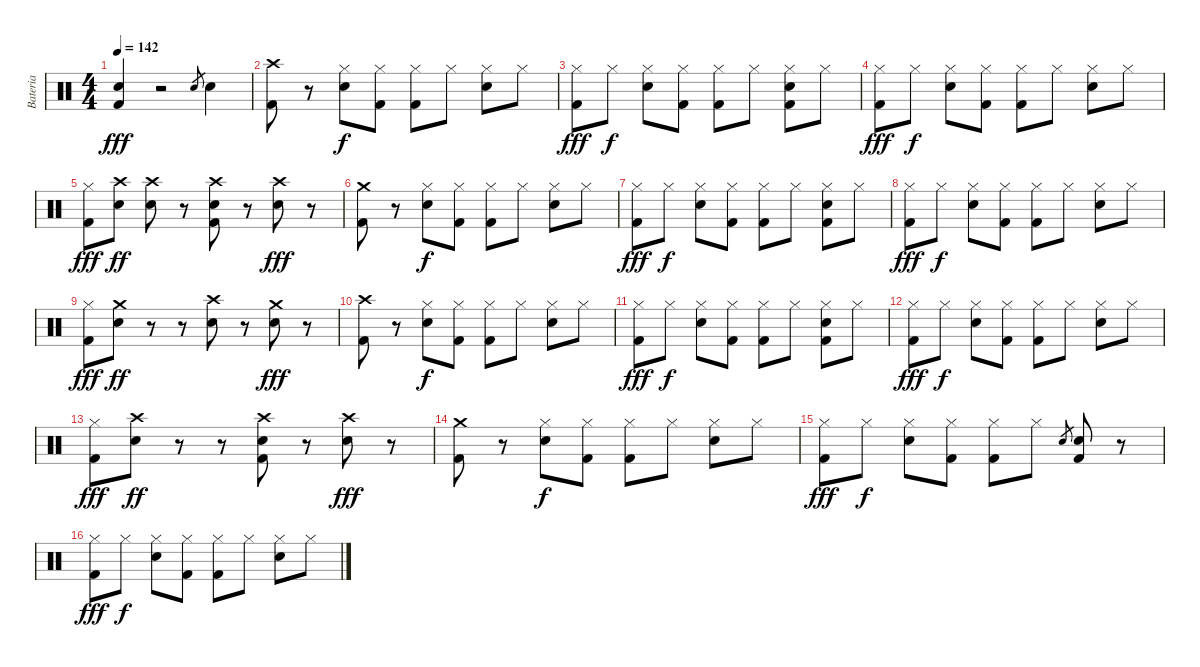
\track ("Bateria" "Bateria") {instrument percussion}
\staff {score}
\articulation defaults
\ts (4 4)
\tempo 142
\clef neutral
\ks c
("Electric Snare (hit)" "Kick (hit) 2").4{dy fff} r.2 "Electric Snare (hit)".8{gr} "Electric Snare (hit)".4 |
("Crash high (hit)" "Kick (hit) 2").8 r.8 ("Hi-Hat (closed)" "Electric Snare (hit)").8{dy f} ("Hi-Hat (closed)" "Kick (hit) 2").8 ("Hi-Hat (closed)" "Kick (hit) 2").8 "Hi-Hat (closed)".8 ("Hi-Hat (closed)" "Electric Snare (hit)").8 "Hi-Hat (closed)".8 |
("Hi-Hat (closed)" "Kick (hit) 2").8{dy fff} "Hi-Hat (closed)".8{dy f} ("Hi-Hat (closed)" "Electric Snare (hit)").8 ("Hi-Hat (closed)" "Kick (hit) 2").8 ("Hi-Hat (closed)" "Kick (hit) 2").8 "Hi-Hat (closed)".8 ("Hi-Hat (closed)" "Electric Snare (hit)" "Kick (hit) 2").8 "Hi-Hat (closed)".8 |
("Hi-Hat (closed)" "Kick (hit) 2").8{dy fff} "Hi-Hat (closed)".8{dy f} ("Hi-Hat (closed)" "Electric Snare (hit)").8 ("Hi-Hat (closed)" "Kick (hit) 2").8 ("Hi-Hat (closed)" "Kick (hit) 2").8 "Hi-Hat (closed)".8 ("Hi-Hat (closed)" "Electric Snare (hit)").8 "Hi-Hat (closed)".8 |
("Hi-Hat (closed)" "Kick (hit) 2").8{dy fff} ("Crash high (hit)" "Electric Snare (hit)").8{dy ff} ("Crash high (hit)" "Electric Snare (hit)").8 r.8 ("Crash high (hit)" "Electric Snare (hit)" "Kick (hit) 2").8 r.8 ("Crash high (hit)" "Electric Snare (hit)").8{dy fff} r.8 |
("Crash medium (hit)" "Kick (hit) 2").8 r.8 ("Hi-Hat (closed)" "Electric Snare (hit)").8{dy f} ("Hi-Hat (closed)" "Kick (hit) 2").8 ("Hi-Hat (closed)" "Kick (hit) 2").8 "Hi-Hat (closed)".8 ("Hi-Hat (closed)" "Electric Snare (hit)").8 "Hi-Hat (closed)".8 |
("Hi-Hat (closed)" "Kick (hit) 2").8{dy fff} "Hi-Hat (closed)".8{dy f} ("Hi-Hat (closed)" "Electric Snare (hit)").8 ("Hi-Hat (closed)" "Kick (hit) 2").8 ("Hi-Hat (closed)" "Kick (hit) 2").8 "Hi-Hat (closed)".8 ("Hi-Hat (closed)" "Electric Snare (hit)" "Kick (hit) 2").8 "Hi-Hat (closed)".8 |
("Hi-Hat (closed)" "Kick (hit) 2").8{dy fff} "Hi-Hat (closed)".8{dy f} ("Hi-Hat (closed)" "Electric Snare (hit)").8 ("Hi-Hat (closed)" "Kick (hit) 2").8 ("Hi-Hat (closed)" "Kick (hit) 2").8 "Hi-Hat (closed)".8 ("Hi-Hat (closed)" "Electric Snare (hit)").8 "Hi-Hat (closed)".8 |
("Hi-Hat (closed)" "Kick (hit) 2").8{dy fff} ("Crash medium (hit)" "Electric Snare (hit)").8{dy ff} r.8 r.8 ("Crash high (hit)" "Electric Snare (hit)").8 r.8 ("Crash medium (hit)" "Electric Snare (hit)").8{dy fff} r.8 |
("Crash high (hit)" "Kick (hit) 2").8 r.8 ("Hi-Hat (closed)" "Electric Snare (hit)").8{dy f} ("Hi-Hat (closed)" "Kick (hit) 2").8 ("Hi-Hat (closed)" "Kick (hit) 2").8 "Hi-Hat (closed)".8 ("Hi-Hat (closed)" "Electric Snare (hit)").8 "Hi-Hat (closed)".8 |
("Hi-Hat (closed)" "Kick (hit) 2").8{dy fff} "Hi-Hat (closed)".8{dy f} ("Hi-Hat (closed)" "Electric Snare (hit)").8 ("Hi-Hat (closed)" "Kick (hit) 2").8 ("Hi-Hat (closed)" "Kick (hit) 2").8 "Hi-Hat (closed)".8 ("Hi-Hat (closed)" "Electric Snare (hit)" "Kick (hit) 2").8 "Hi-Hat (closed)".8 |
("Hi-Hat (closed)" "Kick (hit) 2").8{dy fff} "Hi-Hat (closed)".8{dy f} ("Hi-Hat (closed)" "Electric Snare (hit)").8 ("Hi-Hat (closed)" "Kick (hit) 2").8 ("Hi-Hat (closed)" "Kick (hit) 2").8 "Hi-Hat (closed)".8 ("Hi-Hat (closed)" "Electric Snare (hit)").8 "Hi-Hat (closed)".8 |
("Hi-Hat (closed)" "Kick (hit) 2").8{dy fff} ("Crash high (hit)" "Electric Snare (hit)").8{dy ff} r.8 r.8 ("Crash high (hit)" "Electric Snare (hit)" "Kick (hit) 2").8 r.8 ("Crash high (hit)" "Electric Snare (hit)").8{dy fff} r.8 |
("Crash medium (hit)" "Kick (hit) 2").8 r.8 ("Hi-Hat (closed)" "Electric Snare (hit)").8{dy f} ("Hi-Hat (closed)" "Kick (hit) 2").8 ("Hi-Hat (closed)" "Kick (hit) 2").8 "Hi-Hat (closed)".8 ("Hi-Hat (closed)" "Electric Snare (hit)").8 "Hi-Hat (closed)".8 |
("Hi-Hat (closed)" "Kick (hit) 2").8{dy fff} "Hi-Hat (closed)".8{dy f} ("Hi-Hat (closed)" "Electric Snare (hit)").8 ("Hi-Hat (closed)" "Kick (hit) 2").8 ("Hi-Hat (closed)" "Kick (hit) 2").8 "Hi-Hat (closed)".8 "Electric Snare (hit)".8{gr} ("Electric Snare (hit)" "Kick (hit) 2").8 r.8 |
("Hi-Hat (closed)" "Kick (hit) 2").8{dy fff} "Hi-Hat (closed)".8{dy f} ("Hi-Hat (closed)" "Electric Snare (hit)").8 ("Hi-Hat (closed)" "Kick (hit) 2").8 ("Hi-Hat (closed)" "Kick (hit) 2").8 "Hi-Hat (closed)".8 ("Hi-Hat (closed)" "Electric Snare (hit)").8 "Hi-Hat (closed)".8
